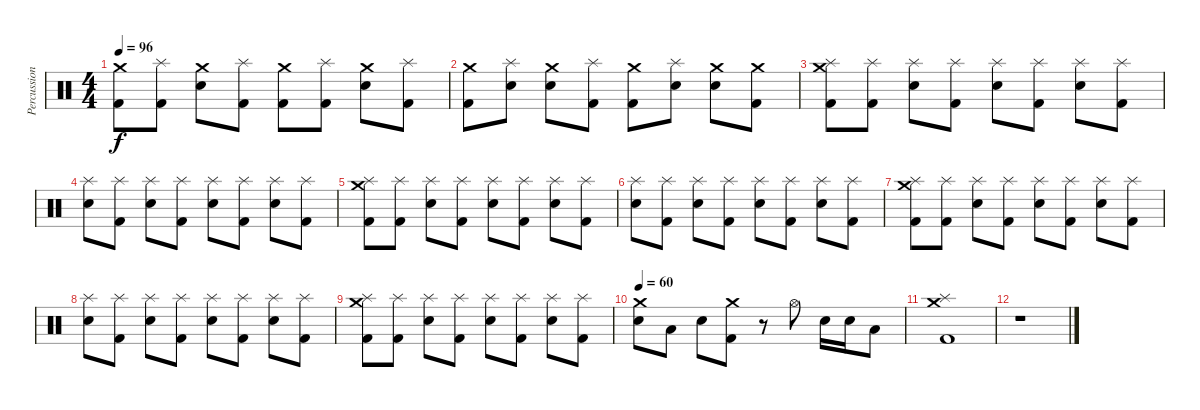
\track ("Percussions" "Percussion") {instrument percussion}
\staff {score}
\articulation defaults
\ts (4 4)
\tempo 96
\clef neutral
\ks c
("Kick (hit) 2" "Crash medium (hit)").8{dy f} ("Kick (hit) 2" "Splash (hit)").8 ("Snare (hit) 2" "Crash medium (hit)").8 ("Kick (hit) 2" "Splash (hit)").8 ("Kick (hit) 2" "Crash medium (hit)").8 ("Kick (hit) 2" "Splash (hit)").8 ("Snare (hit) 2" "Crash medium (hit)").8 ("Kick (hit) 2" "Splash (hit)").8 |
("Kick (hit) 2" "Crash medium (hit)").8 ("Snare (hit) 2" "Splash (hit)").8 ("Snare (hit) 2" "Crash medium (hit)").8 ("Kick (hit) 2" "Splash (hit)").8 ("Kick (hit) 2" "Crash medium (hit)").8 ("Snare (hit) 2" "Splash (hit)").8 ("Snare (hit) 2" "Crash medium (hit)").8 ("Kick (hit) 2" "Crash medium (hit)").8 |
("Kick (hit) 2" "Splash (hit)" "Crash medium (hit)").8 ("Kick (hit) 2" "Splash (hit)").8 ("Snare (hit) 2" "Splash (hit)").8 ("Kick (hit) 2" "Splash (hit)").8 ("Snare (hit) 2" "Splash (hit)").8 ("Kick (hit) 2" "Splash (hit)").8 ("Snare (hit) 2" "Splash (hit)").8 ("Kick (hit) 2" "Splash (hit)").8 |
("Snare (hit) 2" "Splash (hit)").8 ("Kick (hit) 2" "Splash (hit)").8 ("Snare (hit) 2" "Splash (hit)").8 ("Kick (hit) 2" "Splash (hit)").8 ("Snare (hit) 2" "Splash (hit)").8 ("Kick (hit) 2" "Splash (hit)").8 ("Snare (hit) 2" "Splash (hit)").8 ("Kick (hit) 2" "Splash (hit)").8 |
("Kick (hit) 2" "Splash (hit)" "Crash medium (hit)").8 ("Kick (hit) 2" "Splash (hit)").8 ("Snare (hit) 2" "Splash (hit)").8 ("Kick (hit) 2" "Splash (hit)").8 ("Snare (hit) 2" "Splash (hit)").8 ("Kick (hit) 2" "Splash (hit)").8 ("Snare (hit) 2" "Splash (hit)").8 ("Kick (hit) 2" "Splash (hit)").8 |
("Snare (hit) 2" "Splash (hit)").8 ("Kick (hit) 2" "Splash (hit)").8 ("Snare (hit) 2" "Splash (hit)").8 ("Kick (hit) 2" "Splash (hit)").8 ("Snare (hit) 2" "Splash (hit)").8 ("Kick (hit) 2" "Splash (hit)").8 ("Snare (hit) 2" "Splash (hit)").8 ("Kick (hit) 2" "Splash (hit)").8 |
("Kick (hit) 2" "Splash (hit)" "Crash medium (hit)").8 ("Kick (hit) 2" "Splash (hit)").8 ("Snare (hit) 2" "Splash (hit)").8 ("Kick (hit) 2" "Splash (hit)").8 ("Snare (hit) 2" "Splash (hit)").8 ("Kick (hit) 2" "Splash (hit)").8 ("Snare (hit) 2" "Splash (hit)").8 ("Kick (hit) 2" "Splash (hit)").8 |
("Snare (hit) 2" "Splash (hit)").8 ("Kick (hit) 2" "Splash (hit)").8 ("Snare (hit) 2" "Splash (hit)").8 ("Kick (hit) 2" "Splash (hit)").8 ("Snare (hit) 2" "Splash (hit)").8 ("Kick (hit) 2" "Splash (hit)").8 ("Snare (hit) 2" "Splash (hit)").8 ("Kick (hit) 2" "Splash (hit)").8 |
("Kick (hit) 2" "Splash (hit)" "Crash medium (hit)").8 ("Kick (hit) 2" "Splash (hit)").8 ("Snare (hit) 2" "Splash (hit)").8 ("Kick (hit) 2" "Splash (hit)").8 ("Snare (hit) 2" "Splash (hit)").8 ("Kick (hit) 2" "Splash (hit)").8 ("Snare (hit) 2" "Splash (hit)").8 ("Kick (hit) 2" "Splash (hit)").8 |
\tempo 60
("Snare (hit) 2" "Crash medium (hit)").8 "Low Tom (hit)".8 "Snare (hit) 2".8 ("Kick (hit) 2" "Crash medium (hit)").8 r.8 "Hi-Hat (open)".8 "Snare (hit) 2".16 "Snare (hit) 2".16 "Low Tom (hit)".8 |
("Kick (hit) 2" "Crash medium (hit)" "Splash (hit)").1 |
r.1
